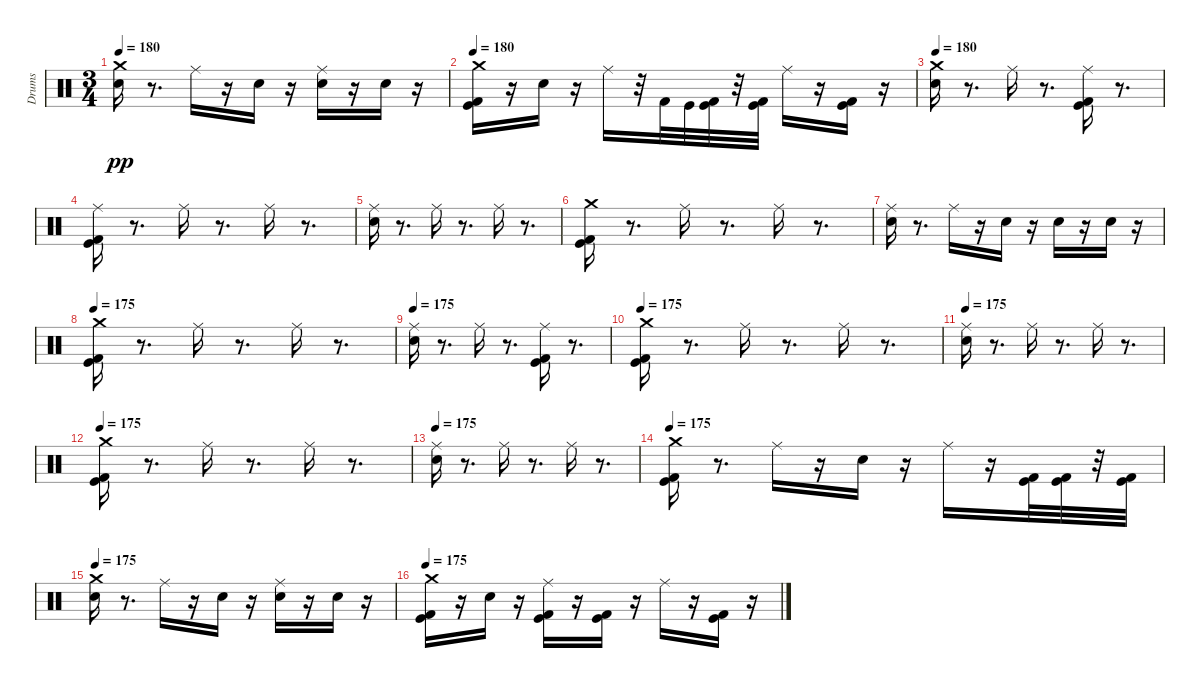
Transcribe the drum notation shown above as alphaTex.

\track ("Drums" "Drums") {instrument percussion}
\staff {score}
\articulation defaults
\ts (3 4)
\tempo 180
\clef neutral
\ks c
("Crash medium (hit)" "Snare (hit) 2").16{dy pp} r.8{d} "Ride (middle)".16 r.16 "Snare (hit) 2".16 r.16 ("Snare (hit) 2" "Ride (middle)").16 r.16 "Snare (hit) 2".16 r.16 |
\tempo 180
("Crash medium (hit)" "Kick (hit) 2" "Kick (hit)").16 r.16 "Snare (hit) 2".16 r.16 "Ride (middle)".16 r.32 "Kick (hit) 2".32 "Kick (hit)".32 ("Kick (hit) 2" "Kick (hit)").32 r.32 ("Kick (hit) 2" "Kick (hit)").32 "Ride (middle)".16 r.16 ("Kick (hit) 2" "Kick (hit)").16 r.16 |
\tempo 180
("Crash medium (hit)" "Snare (hit) 2").16 r.8{d} "Ride (middle)".16 r.8{d} ("Ride (middle)" "Kick (hit) 2" "Kick (hit)").16 r.8{d} |
("Ride (middle)" "Kick (hit) 2" "Kick (hit)").16 r.8{d} "Ride (middle)".16 r.8{d} "Ride (middle)".16 r.8{d} |
("Ride (middle)" "Snare (hit) 2").16 r.8{d} "Ride (middle)".16 r.8{d} "Ride (middle)".16 r.8{d} |
("Crash medium (hit)" "Kick (hit) 2" "Kick (hit)").16 r.8{d} "Ride (middle)".16 r.8{d} "Ride (middle)".16 r.8{d} |
("Ride (middle)" "Snare (hit) 2").16 r.8{d} "Ride (middle)".16 r.16 "Snare (hit) 2".16 r.16 "Snare (hit) 2".16 r.16 "Snare (hit) 2".16 r.16 |
\tempo 175
("Crash medium (hit)" "Kick (hit) 2" "Kick (hit)").16 r.8{d} "Ride (middle)".16 r.8{d} "Ride (middle)".16 r.8{d} |
\tempo 175
("Ride (middle)" "Snare (hit) 2").16 r.8{d} "Ride (middle)".16 r.8{d} ("Ride (middle)" "Kick (hit) 2" "Kick (hit)").16 r.8{d} |
\tempo 175
("Crash medium (hit)" "Kick (hit) 2" "Kick (hit)").16 r.8{d} "Ride (middle)".16 r.8{d} "Ride (middle)".16 r.8{d} |
\tempo 175
("Ride (middle)" "Snare (hit) 2").16 r.8{d} "Ride (middle)".16 r.8{d} "Ride (middle)".16 r.8{d} |
\tempo 175
("Crash medium (hit)" "Kick (hit) 2" "Kick (hit)").16 r.8{d} "Ride (middle)".16 r.8{d} "Ride (middle)".16 r.8{d} |
\tempo 175
("Ride (middle)" "Snare (hit) 2").16 r.8{d} "Ride (middle)".16 r.8{d} "Ride (middle)".16 r.8{d} |
\tempo 175
("Kick (hit)" "Kick (hit) 2" "Crash medium (hit)").16 r.8{d} "Ride (middle)".16 r.16 "Snare (hit) 2".16 r.16 "Ride (middle)".16 r.16 ("Kick (hit) 2" "Kick (hit)").32 ("Kick (hit) 2" "Kick (hit)").32 r.32 ("Kick (hit) 2" "Kick (hit)").32 |
\tempo 175
("Crash medium (hit)" "Snare (hit) 2").16 r.8{d} "Ride (middle)".16 r.16 "Snare (hit) 2".16 r.16 ("Snare (hit) 2" "Ride (middle)").16 r.16 "Snare (hit) 2".16 r.16 |
\tempo 175
("Crash medium (hit)" "Kick (hit) 2" "Kick (hit)").16 r.16 "Snare (hit) 2".16 r.16 ("Kick (hit) 2" "Kick (hit)" "Ride (middle)").16 r.16 ("Kick (hit) 2" "Kick (hit)").16 r.16 "Ride (middle)".16 r.16 ("Kick (hit) 2" "Kick (hit)").16 r.16
